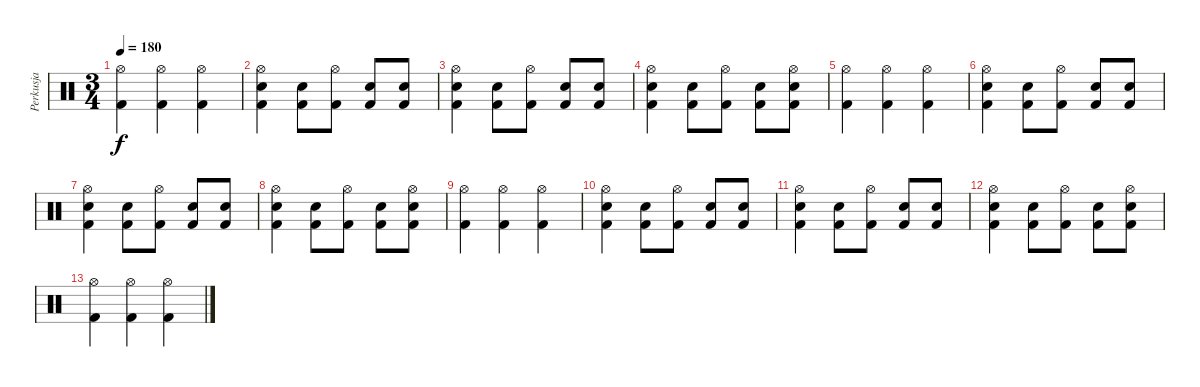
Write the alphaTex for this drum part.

\track ("Perkusja" "Perkusja") {instrument percussion}
\staff {score}
\articulation defaults
\ts (3 4)
\tempo 180
\clef neutral
\ks c
("Hi-Hat (open)" "Kick (hit) 2").4{dy f} ("Hi-Hat (open)" "Kick (hit) 2").4 ("Hi-Hat (open)" "Kick (hit) 2").4 |
("Hi-Hat (open)" "Snare (hit) 2" "Kick (hit) 2").4 ("Snare (hit) 2" "Kick (hit) 2").8 ("Hi-Hat (open)" "Kick (hit) 2").8 ("Snare (hit) 2" "Kick (hit) 2").8 ("Snare (hit) 2" "Kick (hit) 2").8 |
("Hi-Hat (open)" "Snare (hit) 2" "Kick (hit) 2").4 ("Snare (hit) 2" "Kick (hit) 2").8 ("Hi-Hat (open)" "Kick (hit) 2").8 ("Snare (hit) 2" "Kick (hit) 2").8 ("Snare (hit) 2" "Kick (hit) 2").8 |
("Hi-Hat (open)" "Snare (hit) 2" "Kick (hit) 2").4 ("Snare (hit) 2" "Kick (hit) 2").8 ("Hi-Hat (open)" "Kick (hit) 2").8 ("Snare (hit) 2" "Kick (hit) 2").8 ("Hi-Hat (open)" "Snare (hit) 2" "Kick (hit) 2").8 |
("Hi-Hat (open)" "Kick (hit) 2").4 ("Hi-Hat (open)" "Kick (hit) 2").4 ("Hi-Hat (open)" "Kick (hit) 2").4 |
("Hi-Hat (open)" "Snare (hit) 2" "Kick (hit) 2").4 ("Snare (hit) 2" "Kick (hit) 2").8 ("Hi-Hat (open)" "Kick (hit) 2").8 ("Snare (hit) 2" "Kick (hit) 2").8 ("Snare (hit) 2" "Kick (hit) 2").8 |
("Hi-Hat (open)" "Snare (hit) 2" "Kick (hit) 2").4 ("Snare (hit) 2" "Kick (hit) 2").8 ("Hi-Hat (open)" "Kick (hit) 2").8 ("Snare (hit) 2" "Kick (hit) 2").8 ("Snare (hit) 2" "Kick (hit) 2").8 |
("Hi-Hat (open)" "Snare (hit) 2" "Kick (hit) 2").4 ("Snare (hit) 2" "Kick (hit) 2").8 ("Hi-Hat (open)" "Kick (hit) 2").8 ("Snare (hit) 2" "Kick (hit) 2").8 ("Hi-Hat (open)" "Snare (hit) 2" "Kick (hit) 2").8 |
("Hi-Hat (open)" "Kick (hit) 2").4 ("Hi-Hat (open)" "Kick (hit) 2").4 ("Hi-Hat (open)" "Kick (hit) 2").4 |
("Hi-Hat (open)" "Snare (hit) 2" "Kick (hit) 2").4 ("Snare (hit) 2" "Kick (hit) 2").8 ("Hi-Hat (open)" "Kick (hit) 2").8 ("Snare (hit) 2" "Kick (hit) 2").8 ("Snare (hit) 2" "Kick (hit) 2").8 |
("Hi-Hat (open)" "Snare (hit) 2" "Kick (hit) 2").4 ("Snare (hit) 2" "Kick (hit) 2").8 ("Hi-Hat (open)" "Kick (hit) 2").8 ("Snare (hit) 2" "Kick (hit) 2").8 ("Snare (hit) 2" "Kick (hit) 2").8 |
("Hi-Hat (open)" "Snare (hit) 2" "Kick (hit) 2").4 ("Snare (hit) 2" "Kick (hit) 2").8 ("Hi-Hat (open)" "Kick (hit) 2").8 ("Snare (hit) 2" "Kick (hit) 2").8 ("Hi-Hat (open)" "Snare (hit) 2" "Kick (hit) 2").8 |
("Hi-Hat (open)" "Kick (hit) 2").4 ("Hi-Hat (open)" "Kick (hit) 2").4 ("Hi-Hat (open)" "Kick (hit) 2").4
